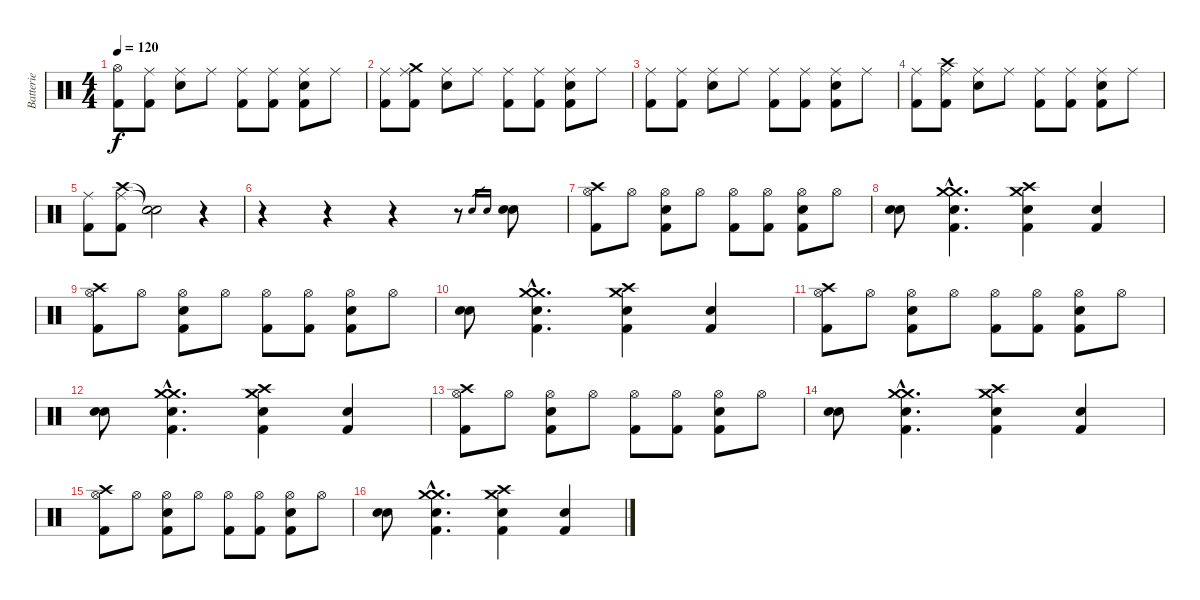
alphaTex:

\track ("Batterie" "Batterie") {instrument percussion}
\staff {score}
\articulation defaults
\ts (4 4)
\tempo 120
\clef neutral
\ks c
("Hi-Hat (open)" "Kick (hit) 2").8{dy f} ("Ride (middle)" "Kick (hit) 2").8 ("Ride (middle)" "Snare (hit) 2").8 "Ride (middle)".8 ("Ride (middle)" "Kick (hit) 2").8 ("Ride (middle)" "Kick (hit) 2").8 ("Ride (middle)" "Snare (hit) 2" "Kick (hit) 2").8 "Ride (middle)".8 |
("Ride (middle)" "Kick (hit) 2").8 ("Ride (middle)" "Crash medium (hit)" "Kick (hit) 2").8 ("Ride (middle)" "Snare (hit) 2").8 "Ride (middle)".8 ("Ride (middle)" "Kick (hit) 2").8 ("Ride (middle)" "Kick (hit) 2").8 ("Ride (middle)" "Snare (hit) 2" "Kick (hit) 2").8 "Ride (middle)".8 |
("Ride (middle)" "Kick (hit) 2").8 ("Ride (middle)" "Kick (hit) 2").8 ("Ride (middle)" "Snare (hit) 2").8 "Ride (middle)".8 ("Ride (middle)" "Kick (hit) 2").8 ("Ride (middle)" "Kick (hit) 2").8 ("Ride (middle)" "Snare (hit) 2" "Kick (hit) 2").8 "Ride (middle)".8 |
("Ride (middle)" "Kick (hit) 2").8 ("Ride (middle)" "Crash high (hit)" "Kick (hit) 2").8 ("Ride (middle)" "Snare (hit) 2").8 "Ride (middle)".8 ("Ride (middle)" "Kick (hit) 2").8 ("Ride (middle)" "Kick (hit) 2").8 ("Ride (middle)" "Snare (hit) 2" "Kick (hit) 2").8 "Ride (middle)".8 |
("Ride (middle)" "Kick (hit) 2").8 ("Ride (middle)" "Crash high (hit)" "Kick (hit) 2").8 ("Snare (hit)"{t} "Snare (hit)"{t}).2 r.4 |
r.4 r.4 r.4 r.8 "Snare (hit) 2".16{gr} "Snare (hit) 2".16{gr} ("Snare (hit) 2" "Snare (hit) 2").8 |
("Hi-Hat (open)" "Crash high (hit)" "Kick (hit) 2").8 "Hi-Hat (open)".8 ("Hi-Hat (open)" "Snare (hit) 2" "Kick (hit) 2").8 "Hi-Hat (open)".8 ("Hi-Hat (open)" "Kick (hit) 2").8 ("Hi-Hat (open)" "Kick (hit) 2").8 ("Hi-Hat (open)" "Snare (hit) 2" "Kick (hit) 2").8 "Hi-Hat (open)".8 |
("Snare (hit) 2" "Snare (hit) 2").8 ("Crash medium (hit)"{hac} "Crash medium (hit)"{hac} "Snare (hit) 2"{hac} "Kick (hit) 2"{hac}).4{d} ("Crash medium (hit)" "Crash high (hit)" "Snare (hit) 2" "Kick (hit) 2").4 ("Snare (hit) 2" "Kick (hit) 2").4 |
("Hi-Hat (open)" "Crash high (hit)" "Kick (hit) 2").8 "Hi-Hat (open)".8 ("Hi-Hat (open)" "Snare (hit) 2" "Kick (hit) 2").8 "Hi-Hat (open)".8 ("Hi-Hat (open)" "Kick (hit) 2").8 ("Hi-Hat (open)" "Kick (hit) 2").8 ("Hi-Hat (open)" "Snare (hit) 2" "Kick (hit) 2").8 "Hi-Hat (open)".8 |
("Snare (hit) 2" "Snare (hit) 2").8 ("Crash medium (hit)"{hac} "Crash medium (hit)"{hac} "Snare (hit) 2"{hac} "Kick (hit) 2"{hac}).4{d} ("Crash medium (hit)" "Crash high (hit)" "Snare (hit) 2" "Kick (hit) 2").4 ("Snare (hit) 2" "Kick (hit) 2").4 |
("Hi-Hat (open)" "Crash high (hit)" "Kick (hit) 2").8 "Hi-Hat (open)".8 ("Hi-Hat (open)" "Snare (hit) 2" "Kick (hit) 2").8 "Hi-Hat (open)".8 ("Hi-Hat (open)" "Kick (hit) 2").8 ("Hi-Hat (open)" "Kick (hit) 2").8 ("Hi-Hat (open)" "Snare (hit) 2" "Kick (hit) 2").8 "Hi-Hat (open)".8 |
("Snare (hit) 2" "Snare (hit) 2").8 ("Crash medium (hit)"{hac} "Crash medium (hit)"{hac} "Snare (hit) 2"{hac} "Kick (hit) 2"{hac}).4{d} ("Crash medium (hit)" "Crash high (hit)" "Snare (hit) 2" "Kick (hit) 2").4 ("Snare (hit) 2" "Kick (hit) 2").4 |
("Hi-Hat (open)" "Crash high (hit)" "Kick (hit) 2").8 "Hi-Hat (open)".8 ("Hi-Hat (open)" "Snare (hit) 2" "Kick (hit) 2").8 "Hi-Hat (open)".8 ("Hi-Hat (open)" "Kick (hit) 2").8 ("Hi-Hat (open)" "Kick (hit) 2").8 ("Hi-Hat (open)" "Snare (hit) 2" "Kick (hit) 2").8 "Hi-Hat (open)".8 |
("Snare (hit) 2" "Snare (hit) 2").8 ("Crash medium (hit)"{hac} "Crash medium (hit)"{hac} "Snare (hit) 2"{hac} "Kick (hit) 2"{hac}).4{d} ("Crash medium (hit)" "Crash high (hit)" "Snare (hit) 2" "Kick (hit) 2").4 ("Snare (hit) 2" "Kick (hit) 2").4 |
("Hi-Hat (open)" "Crash high (hit)" "Kick (hit) 2").8 "Hi-Hat (open)".8 ("Hi-Hat (open)" "Snare (hit) 2" "Kick (hit) 2").8 "Hi-Hat (open)".8 ("Hi-Hat (open)" "Kick (hit) 2").8 ("Hi-Hat (open)" "Kick (hit) 2").8 ("Hi-Hat (open)" "Snare (hit) 2" "Kick (hit) 2").8 "Hi-Hat (open)".8 |
("Snare (hit) 2" "Snare (hit) 2").8 ("Crash medium (hit)"{hac} "Crash medium (hit)"{hac} "Snare (hit) 2"{hac} "Kick (hit) 2"{hac}).4{d} ("Crash medium (hit)" "Crash high (hit)" "Snare (hit) 2" "Kick (hit) 2").4 ("Snare (hit) 2" "Kick (hit) 2").4
